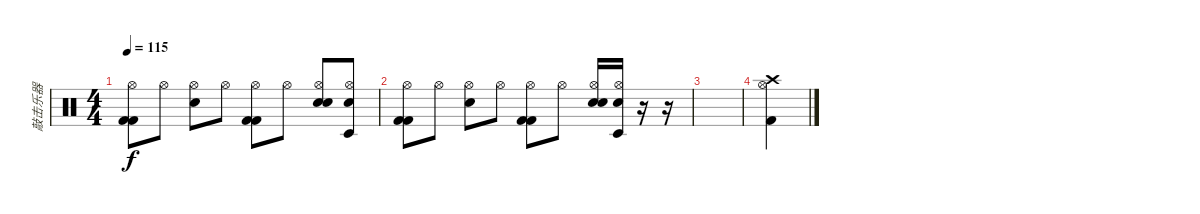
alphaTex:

\track ("敲击乐器" "敲击乐器") {instrument percussion}
\staff {score}
\articulation defaults
\ts (4 4)
\tempo 115
\clef neutral
\ks c
("Hi-Hat (open)" "Kick (hit) 2" "Kick (hit) 2").8{dy f} "Hi-Hat (open)".8 ("Hi-Hat (open)" "Snare (hit) 2").8 "Hi-Hat (open)".8 ("Hi-Hat (open)" "Kick (hit) 2" "Kick (hit) 2").8 "Hi-Hat (open)".8 ("Hi-Hat (open)" "Snare (hit) 2" "Electric Snare (hit)").8 ("Hi-Hat (open)" "Timbale low (hit)" "Snare (hit) 2").8 |
("Hi-Hat (open)" "Kick (hit) 2" "Kick (hit) 2").8 "Hi-Hat (open)".8 ("Hi-Hat (open)" "Snare (hit) 2").8 "Hi-Hat (open)".8 ("Hi-Hat (open)" "Kick (hit) 2" "Kick (hit) 2").8 "Hi-Hat (open)".8 ("Hi-Hat (open)" "Snare (hit) 2" "Electric Snare (hit)").16 ("Hi-Hat (open)" "Timbale low (hit)" "Snare (hit) 2").16 r.16 r.16 |
|
("Crash high (hit)" "Hi-Hat (open)" "Kick (hit) 2").4
